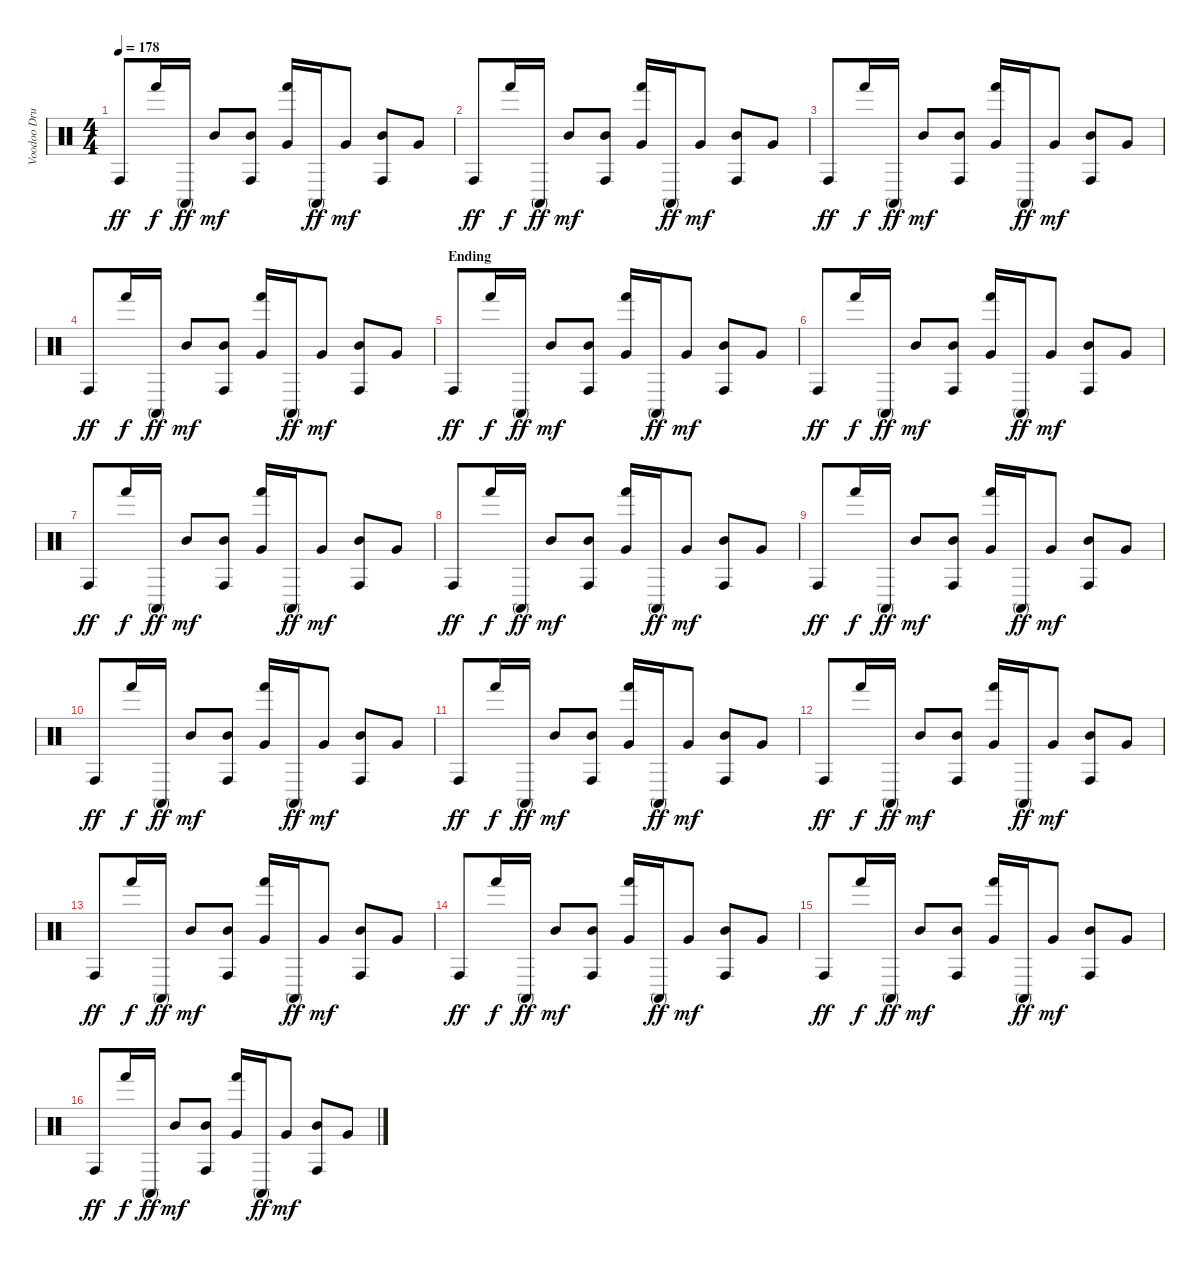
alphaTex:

\track ("Voodoo Drums" "Voodoo Dru") {instrument percussion}
\staff {score}
\articulation defaults
\ts (4 4)
\tempo 178
\clef neutral
\ks c "Conga high (hit)".8{dy ff} "Hand (hit)".16{dy f} "Conga high (mute)".16{dy ff} "Mid Tom (hit)".8{dy mf}
("Conga high (hit)" "Mid Tom (hit)").8 ("Hand (hit)" "Very Low Tom (hit)").16 "Conga high (mute)".16{dy ff} "Very Low Tom (hit)".8{dy mf} ("Conga high (hit)" "Mid Tom (hit)").8 "Very Low Tom (hit)".8 |
"Conga high (hit)".8{dy ff} "Hand (hit)".16{dy f} "Conga high (mute)".16{dy ff} "Mid Tom (hit)".8{dy mf} ("Conga high (hit)" "Mid Tom (hit)").8 ("Hand (hit)" "Very Low Tom (hit)").16 "Conga high (mute)".16{dy ff} "Very Low Tom (hit)".8{dy mf} ("Conga high (hit)" "Mid Tom (hit)").8 "Very Low Tom (hit)".8 |
"Conga high (hit)".8{dy ff} "Hand (hit)".16{dy f} "Conga high (mute)".16{dy ff} "Mid Tom (hit)".8{dy mf} ("Conga high (hit)" "Mid Tom (hit)").8 ("Hand (hit)" "Very Low Tom (hit)").16 "Conga high (mute)".16{dy ff} "Very Low Tom (hit)".8{dy mf} ("Conga high (hit)" "Mid Tom (hit)").8 "Very Low Tom (hit)".8 |
"Conga high (hit)".8{dy ff} "Hand (hit)".16{dy f} "Conga high (mute)".16{dy ff} "Mid Tom (hit)".8{dy mf} ("Conga high (hit)" "Mid Tom (hit)").8 ("Hand (hit)" "Very Low Tom (hit)").16 "Conga high (mute)".16{dy ff} "Very Low Tom (hit)".8{dy mf} ("Conga high (hit)" "Mid Tom (hit)").8 "Very Low Tom (hit)".8 |
\section ("" "Ending")
"Conga high (hit)".8{dy ff} "Hand (hit)".16{dy f} "Conga high (mute)".16{dy ff} "Mid Tom (hit)".8{dy mf} ("Conga high (hit)" "Mid Tom (hit)").8 ("Hand (hit)" "Very Low Tom (hit)").16 "Conga high (mute)".16{dy ff} "Very Low Tom (hit)".8{dy mf} ("Conga high (hit)" "Mid Tom (hit)").8 "Very Low Tom (hit)".8 |
"Conga high (hit)".8{dy ff} "Hand (hit)".16{dy f} "Conga high (mute)".16{dy ff} "Mid Tom (hit)".8{dy mf} ("Conga high (hit)" "Mid Tom (hit)").8 ("Hand (hit)" "Very Low Tom (hit)").16 "Conga high (mute)".16{dy ff} "Very Low Tom (hit)".8{dy mf} ("Conga high (hit)" "Mid Tom (hit)").8 "Very Low Tom (hit)".8 |
"Conga high (hit)".8{dy ff} "Hand (hit)".16{dy f} "Conga high (mute)".16{dy ff} "Mid Tom (hit)".8{dy mf} ("Conga high (hit)" "Mid Tom (hit)").8 ("Hand (hit)" "Very Low Tom (hit)").16 "Conga high (mute)".16{dy ff} "Very Low Tom (hit)".8{dy mf} ("Conga high (hit)" "Mid Tom (hit)").8 "Very Low Tom (hit)".8 |
"Conga high (hit)".8{dy ff} "Hand (hit)".16{dy f} "Conga high (mute)".16{dy ff} "Mid Tom (hit)".8{dy mf} ("Conga high (hit)" "Mid Tom (hit)").8 ("Hand (hit)" "Very Low Tom (hit)").16 "Conga high (mute)".16{dy ff} "Very Low Tom (hit)".8{dy mf} ("Conga high (hit)" "Mid Tom (hit)").8 "Very Low Tom (hit)".8 |
"Conga high (hit)".8{dy ff} "Hand (hit)".16{dy f} "Conga high (mute)".16{dy ff} "Mid Tom (hit)".8{dy mf} ("Conga high (hit)" "Mid Tom (hit)").8 ("Hand (hit)" "Very Low Tom (hit)").16 "Conga high (mute)".16{dy ff} "Very Low Tom (hit)".8{dy mf} ("Conga high (hit)" "Mid Tom (hit)").8 "Very Low Tom (hit)".8 |
"Conga high (hit)".8{dy ff} "Hand (hit)".16{dy f} "Conga high (mute)".16{dy ff} "Mid Tom (hit)".8{dy mf} ("Conga high (hit)" "Mid Tom (hit)").8 ("Hand (hit)" "Very Low Tom (hit)").16 "Conga high (mute)".16{dy ff} "Very Low Tom (hit)".8{dy mf} ("Conga high (hit)" "Mid Tom (hit)").8 "Very Low Tom (hit)".8 |
"Conga high (hit)".8{dy ff} "Hand (hit)".16{dy f} "Conga high (mute)".16{dy ff} "Mid Tom (hit)".8{dy mf} ("Conga high (hit)" "Mid Tom (hit)").8 ("Hand (hit)" "Very Low Tom (hit)").16 "Conga high (mute)".16{dy ff} "Very Low Tom (hit)".8{dy mf} ("Conga high (hit)" "Mid Tom (hit)").8 "Very Low Tom (hit)".8 |
"Conga high (hit)".8{dy ff} "Hand (hit)".16{dy f} "Conga high (mute)".16{dy ff} "Mid Tom (hit)".8{dy mf} ("Conga high (hit)" "Mid Tom (hit)").8 ("Hand (hit)" "Very Low Tom (hit)").16 "Conga high (mute)".16{dy ff} "Very Low Tom (hit)".8{dy mf} ("Conga high (hit)" "Mid Tom (hit)").8 "Very Low Tom (hit)".8 |
"Conga high (hit)".8{dy ff} "Hand (hit)".16{dy f} "Conga high (mute)".16{dy ff} "Mid Tom (hit)".8{dy mf} ("Conga high (hit)" "Mid Tom (hit)").8 ("Hand (hit)" "Very Low Tom (hit)").16 "Conga high (mute)".16{dy ff} "Very Low Tom (hit)".8{dy mf} ("Conga high (hit)" "Mid Tom (hit)").8 "Very Low Tom (hit)".8 |
"Conga high (hit)".8{dy ff} "Hand (hit)".16{dy f} "Conga high (mute)".16{dy ff} "Mid Tom (hit)".8{dy mf} ("Conga high (hit)" "Mid Tom (hit)").8 ("Hand (hit)" "Very Low Tom (hit)").16 "Conga high (mute)".16{dy ff} "Very Low Tom (hit)".8{dy mf} ("Conga high (hit)" "Mid Tom (hit)").8 "Very Low Tom (hit)".8 |
"Conga high (hit)".8{dy ff} "Hand (hit)".16{dy f} "Conga high (mute)".16{dy ff} "Mid Tom (hit)".8{dy mf} ("Conga high (hit)" "Mid Tom (hit)").8 ("Hand (hit)" "Very Low Tom (hit)").16 "Conga high (mute)".16{dy ff} "Very Low Tom (hit)".8{dy mf} ("Conga high (hit)" "Mid Tom (hit)").8 "Very Low Tom (hit)".8 |
"Conga high (hit)".8{dy ff} "Hand (hit)".16{dy f} "Conga high (mute)".16{dy ff} "Mid Tom (hit)".8{dy mf} ("Conga high (hit)" "Mid Tom (hit)").8 ("Hand (hit)" "Very Low Tom (hit)").16 "Conga high (mute)".16{dy ff} "Very Low Tom (hit)".8{dy mf} ("Conga high (hit)" "Mid Tom (hit)").8 "Very Low Tom (hit)".8
